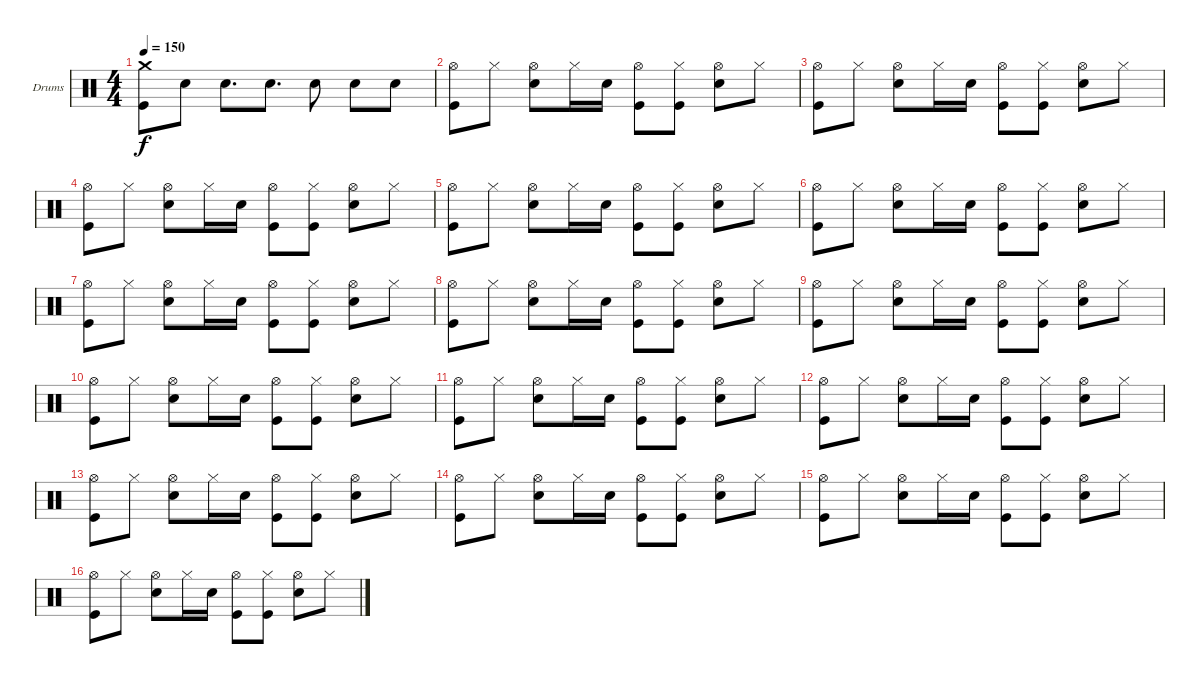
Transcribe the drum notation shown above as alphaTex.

\bracketExtendMode groupsimilarinstruments
\firstSystemTrackNameOrientation horizontal
\otherSystemsTrackNameOrientation horizontal
\track ("Drumkit" "Drums") {instrument percussion}
\staff {score}
\articulation defaults
\ts (4 4)
\tempo 150
\clef neutral
\ks c
("Crash medium (hit)" "Kick (hit)").8{dy f} "Snare (hit) 2".8 "Snare (hit) 2".8{d} "Snare (hit) 2".8{d} "Snare (hit) 2".8 "Snare (hit) 2".8 "Snare (hit) 2".8 |
("Hi-Hat (open)" "Kick (hit)").8 "Hi-Hat (closed)".8 ("Hi-Hat (open)" "Snare (hit) 2").8 "Hi-Hat (closed)".16 "Snare (hit) 2".16 ("Hi-Hat (open)" "Kick (hit)").8 ("Hi-Hat (closed)" "Kick (hit)").8 ("Hi-Hat (open)" "Snare (hit) 2").8 "Hi-Hat (closed)".8 |
("Hi-Hat (open)" "Kick (hit)").8 "Hi-Hat (closed)".8 ("Hi-Hat (open)" "Snare (hit) 2").8 "Hi-Hat (closed)".16 "Snare (hit) 2".16 ("Hi-Hat (open)" "Kick (hit)").8 ("Hi-Hat (closed)" "Kick (hit)").8 ("Hi-Hat (open)" "Snare (hit) 2").8 "Hi-Hat (closed)".8 |
("Hi-Hat (open)" "Kick (hit)").8 "Hi-Hat (closed)".8 ("Hi-Hat (open)" "Snare (hit) 2").8 "Hi-Hat (closed)".16 "Snare (hit) 2".16 ("Hi-Hat (open)" "Kick (hit)").8 ("Hi-Hat (closed)" "Kick (hit)").8 ("Hi-Hat (open)" "Snare (hit) 2").8 "Hi-Hat (closed)".8 |
("Hi-Hat (open)" "Kick (hit)").8 "Hi-Hat (closed)".8 ("Hi-Hat (open)" "Snare (hit) 2").8 "Hi-Hat (closed)".16 "Snare (hit) 2".16 ("Hi-Hat (open)" "Kick (hit)").8 ("Hi-Hat (closed)" "Kick (hit)").8 ("Hi-Hat (open)" "Snare (hit) 2").8 "Hi-Hat (closed)".8 |
("Hi-Hat (open)" "Kick (hit)").8 "Hi-Hat (closed)".8 ("Hi-Hat (open)" "Snare (hit) 2").8 "Hi-Hat (closed)".16 "Snare (hit) 2".16 ("Hi-Hat (open)" "Kick (hit)").8 ("Hi-Hat (closed)" "Kick (hit)").8 ("Hi-Hat (open)" "Snare (hit) 2").8 "Hi-Hat (closed)".8 |
("Hi-Hat (open)" "Kick (hit)").8 "Hi-Hat (closed)".8 ("Hi-Hat (open)" "Snare (hit) 2").8 "Hi-Hat (closed)".16 "Snare (hit) 2".16 ("Hi-Hat (open)" "Kick (hit)").8 ("Hi-Hat (closed)" "Kick (hit)").8 ("Hi-Hat (open)" "Snare (hit) 2").8 "Hi-Hat (closed)".8 |
("Hi-Hat (open)" "Kick (hit)").8 "Hi-Hat (closed)".8 ("Hi-Hat (open)" "Snare (hit) 2").8 "Hi-Hat (closed)".16 "Snare (hit) 2".16 ("Hi-Hat (open)" "Kick (hit)").8 ("Hi-Hat (closed)" "Kick (hit)").8 ("Hi-Hat (open)" "Snare (hit) 2").8 "Hi-Hat (closed)".8 |
("Hi-Hat (open)" "Kick (hit)").8 "Hi-Hat (closed)".8 ("Hi-Hat (open)" "Snare (hit) 2").8 "Hi-Hat (closed)".16 "Snare (hit) 2".16 ("Hi-Hat (open)" "Kick (hit)").8 ("Hi-Hat (closed)" "Kick (hit)").8 ("Hi-Hat (open)" "Snare (hit) 2").8 "Hi-Hat (closed)".8 |
("Hi-Hat (open)" "Kick (hit)").8 "Hi-Hat (closed)".8 ("Hi-Hat (open)" "Snare (hit) 2").8 "Hi-Hat (closed)".16 "Snare (hit) 2".16 ("Hi-Hat (open)" "Kick (hit)").8 ("Hi-Hat (closed)" "Kick (hit)").8 ("Hi-Hat (open)" "Snare (hit) 2").8 "Hi-Hat (closed)".8 |
("Hi-Hat (open)" "Kick (hit)").8 "Hi-Hat (closed)".8 ("Hi-Hat (open)" "Snare (hit) 2").8 "Hi-Hat (closed)".16 "Snare (hit) 2".16 ("Hi-Hat (open)" "Kick (hit)").8 ("Hi-Hat (closed)" "Kick (hit)").8 ("Hi-Hat (open)" "Snare (hit) 2").8 "Hi-Hat (closed)".8 |
("Hi-Hat (open)" "Kick (hit)").8 "Hi-Hat (closed)".8 ("Hi-Hat (open)" "Snare (hit) 2").8 "Hi-Hat (closed)".16 "Snare (hit) 2".16 ("Hi-Hat (open)" "Kick (hit)").8 ("Hi-Hat (closed)" "Kick (hit)").8 ("Hi-Hat (open)" "Snare (hit) 2").8 "Hi-Hat (closed)".8 |
("Hi-Hat (open)" "Kick (hit)").8 "Hi-Hat (closed)".8 ("Hi-Hat (open)" "Snare (hit) 2").8 "Hi-Hat (closed)".16 "Snare (hit) 2".16 ("Hi-Hat (open)" "Kick (hit)").8 ("Hi-Hat (closed)" "Kick (hit)").8 ("Hi-Hat (open)" "Snare (hit) 2").8 "Hi-Hat (closed)".8 |
("Hi-Hat (open)" "Kick (hit)").8 "Hi-Hat (closed)".8 ("Hi-Hat (open)" "Snare (hit) 2").8 "Hi-Hat (closed)".16 "Snare (hit) 2".16 ("Hi-Hat (open)" "Kick (hit)").8 ("Hi-Hat (closed)" "Kick (hit)").8 ("Hi-Hat (open)" "Snare (hit) 2").8 "Hi-Hat (closed)".8 |
("Hi-Hat (open)" "Kick (hit)").8 "Hi-Hat (closed)".8 ("Hi-Hat (open)" "Snare (hit) 2").8 "Hi-Hat (closed)".16 "Snare (hit) 2".16 ("Hi-Hat (open)" "Kick (hit)").8 ("Hi-Hat (closed)" "Kick (hit)").8 ("Hi-Hat (open)" "Snare (hit) 2").8 "Hi-Hat (closed)".8 |
("Hi-Hat (open)" "Kick (hit)").8 "Hi-Hat (closed)".8 ("Hi-Hat (open)" "Snare (hit) 2").8 "Hi-Hat (closed)".16 "Snare (hit) 2".16 ("Hi-Hat (open)" "Kick (hit)").8 ("Hi-Hat (closed)" "Kick (hit)").8 ("Hi-Hat (open)" "Snare (hit) 2").8 "Hi-Hat (closed)".8
